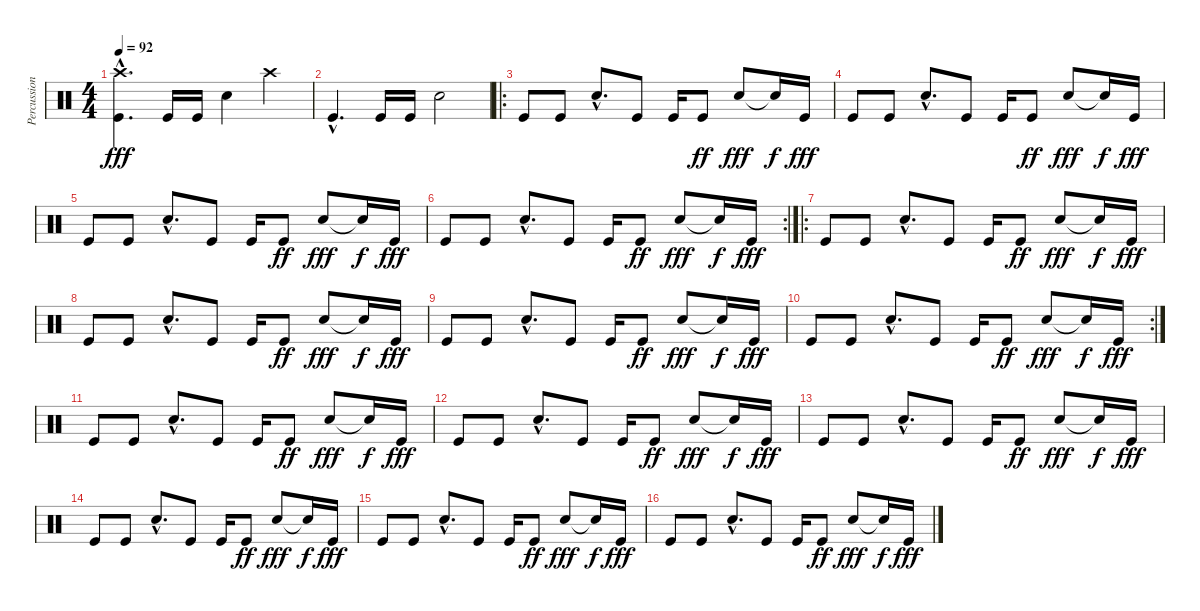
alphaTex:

\track ("Percussion" "Percussion") {instrument percussion}
\staff {score}
\articulation defaults
\ts (4 4)
\tempo 92
\clef neutral
\ks c
("Kick (hit)"{hac} "Crash high (hit)"{hac}).4{d dy fff} "Kick (hit)".16 "Kick (hit)".16 "Snare (hit) 2".4 "Crash high (hit)".4 |
"Kick (hit)"{hac}.4{d} "Kick (hit)".16 "Kick (hit)".16 "Snare (hit) 2".2 |
\ro "Kick (hit)".8 "Kick (hit)".8 "Electric Snare (hit)"{hac}.8{d} "Kick (hit)".8 "Kick (hit)".16 "Kick (hit)".8{dy ff} "Electric Snare (hit)".8{dy fff} "Snare (hit)"{t}.16{dy f} "Kick (hit)".16{dy fff}
|
"Kick (hit)".8 "Kick (hit)".8 "Electric Snare (hit)"{hac}.8{d} "Kick (hit)".8 "Kick (hit)".16 "Kick (hit)".8{dy ff} "Electric Snare (hit)".8{dy fff} "Snare (hit)"{t}.16{dy f} "Kick (hit)".16{dy fff} |
"Kick (hit)".8 "Kick (hit)".8 "Electric Snare (hit)"{hac}.8{d} "Kick (hit)".8 "Kick (hit)".16 "Kick (hit)".8{dy ff} "Electric Snare (hit)".8{dy fff} "Snare (hit)"{t}.16{dy f} "Kick (hit)".16{dy fff} |
\rc 2 "Kick (hit)".8 "Kick (hit)".8 "Electric Snare (hit)"{hac}.8{d} "Kick (hit)".8 "Kick (hit)".16 "Kick (hit)".8{dy ff} "Electric Snare (hit)".8{dy fff} "Snare (hit)"{t}.16{dy f} "Kick (hit)".16{dy fff}
|
\ro "Kick (hit)".8 "Kick (hit)".8 "Electric Snare (hit)"{hac}.8{d} "Kick (hit)".8 "Kick (hit)".16 "Kick (hit)".8{dy ff} "Electric Snare (hit)".8{dy fff} "Snare (hit)"{t}.16{dy f} "Kick (hit)".16{dy fff}
|
"Kick (hit)".8 "Kick (hit)".8 "Electric Snare (hit)"{hac}.8{d} "Kick (hit)".8 "Kick (hit)".16 "Kick (hit)".8{dy ff} "Electric Snare (hit)".8{dy fff} "Snare (hit)"{t}.16{dy f} "Kick (hit)".16{dy fff} |
"Kick (hit)".8 "Kick (hit)".8 "Electric Snare (hit)"{hac}.8{d} "Kick (hit)".8 "Kick (hit)".16 "Kick (hit)".8{dy ff} "Electric Snare (hit)".8{dy fff} "Snare (hit)"{t}.16{dy f} "Kick (hit)".16{dy fff} |
\rc 2 "Kick (hit)".8 "Kick (hit)".8 "Electric Snare (hit)"{hac}.8{d} "Kick (hit)".8 "Kick (hit)".16 "Kick (hit)".8{dy ff} "Electric Snare (hit)".8{dy fff} "Snare (hit)"{t}.16{dy f} "Kick (hit)".16{dy fff}
|
"Kick (hit)".8 "Kick (hit)".8 "Electric Snare (hit)"{hac}.8{d} "Kick (hit)".8 "Kick (hit)".16 "Kick (hit)".8{dy ff} "Electric Snare (hit)".8{dy fff} "Snare (hit)"{t}.16{dy f} "Kick (hit)".16{dy fff} |
"Kick (hit)".8 "Kick (hit)".8 "Electric Snare (hit)"{hac}.8{d} "Kick (hit)".8 "Kick (hit)".16 "Kick (hit)".8{dy ff} "Electric Snare (hit)".8{dy fff} "Snare (hit)"{t}.16{dy f} "Kick (hit)".16{dy fff} |
"Kick (hit)".8 "Kick (hit)".8 "Electric Snare (hit)"{hac}.8{d} "Kick (hit)".8 "Kick (hit)".16 "Kick (hit)".8{dy ff} "Electric Snare (hit)".8{dy fff} "Snare (hit)"{t}.16{dy f} "Kick (hit)".16{dy fff} |
"Kick (hit)".8 "Kick (hit)".8 "Electric Snare (hit)"{hac}.8{d} "Kick (hit)".8 "Kick (hit)".16 "Kick (hit)".8{dy ff} "Electric Snare (hit)".8{dy fff} "Snare (hit)"{t}.16{dy f} "Kick (hit)".16{dy fff} |
"Kick (hit)".8 "Kick (hit)".8 "Electric Snare (hit)"{hac}.8{d} "Kick (hit)".8 "Kick (hit)".16 "Kick (hit)".8{dy ff} "Electric Snare (hit)".8{dy fff} "Snare (hit)"{t}.16{dy f} "Kick (hit)".16{dy fff} |
"Kick (hit)".8 "Kick (hit)".8 "Electric Snare (hit)"{hac}.8{d} "Kick (hit)".8 "Kick (hit)".16 "Kick (hit)".8{dy ff} "Electric Snare (hit)".8{dy fff} "Snare (hit)"{t}.16{dy f} "Kick (hit)".16{dy fff}
